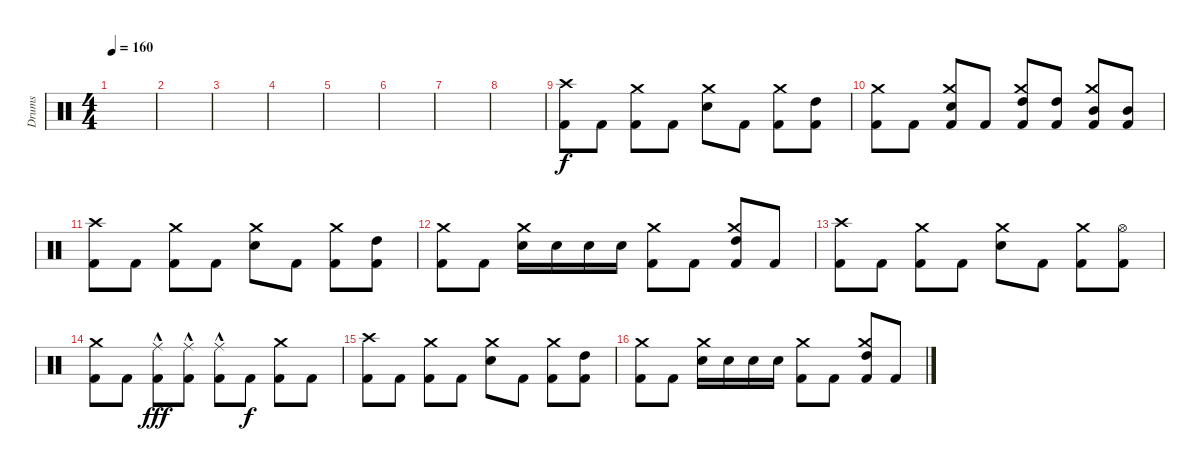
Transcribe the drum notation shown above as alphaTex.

\track ("Drums" "Drums") {instrument percussion}
\staff {score}
\articulation defaults
\ts (4 4)
\tempo 160
\clef neutral
\ks c
|
|
|
|
|
|
|
|
("Crash high (hit)" "Kick (hit) 2").8 "Kick (hit) 2".8 ("Crash medium (hit)" "Kick (hit) 2").8 "Kick (hit) 2".8 ("Crash medium (hit)" "Electric Snare (hit)").8 "Kick (hit) 2".8 ("Crash medium (hit)" "Kick (hit) 2").8 ("High Tom (hit)" "Kick (hit) 2").8 |
("Crash medium (hit)" "Kick (hit) 2").8 "Kick (hit) 2".8 ("Crash medium (hit)" "Electric Snare (hit)" "Kick (hit) 2").8 "Kick (hit) 2".8 ("Crash medium (hit)" "High Tom (hit)" "Kick (hit) 2").8 ("High Tom (hit)" "Kick (hit) 2").8 ("Crash medium (hit)" "Mid Tom (hit)" "Kick (hit) 2").8 ("Mid Tom (hit)" "Kick (hit) 2").8 |
("Crash high (hit)" "Kick (hit) 2").8 "Kick (hit) 2".8 ("Crash medium (hit)" "Kick (hit) 2").8 "Kick (hit) 2".8 ("Crash medium (hit)" "Electric Snare (hit)").8 "Kick (hit) 2".8 ("Crash medium (hit)" "Kick (hit) 2").8 ("High Tom (hit)" "Kick (hit) 2").8 |
("Crash medium (hit)" "Kick (hit) 2").8 "Kick (hit) 2".8 ("Crash medium (hit)" "Electric Snare (hit)").16 "Electric Snare (hit)".16 "Electric Snare (hit)".16 "Electric Snare (hit)".16 ("Crash medium (hit)" "Kick (hit) 2").8 "Kick (hit) 2".8 ("Crash medium (hit)" "High Tom (hit)" "Kick (hit) 2").8 "Kick (hit) 2".8 |
("Crash high (hit)" "Kick (hit) 2").8 "Kick (hit) 2".8 ("Crash medium (hit)" "Kick (hit) 2").8 "Kick (hit) 2".8 ("Crash medium (hit)" "Electric Snare (hit)").8 "Kick (hit) 2".8 ("Crash medium (hit)" "Kick (hit) 2").8 ("Hi-Hat (open)" "Kick (hit) 2").8 |
("Crash medium (hit)" "Kick (hit) 2").8 "Kick (hit) 2".8 ("Ride (middle)"{hac} "Kick (hit) 2").8{dy fff} ("Ride (middle)"{hac} "Kick (hit) 2").8 ("Ride (middle)"{hac} "Kick (hit) 2").8 "Kick (hit) 2".8{dy f} ("Crash medium (hit)" "Kick (hit) 2").8 "Kick (hit) 2".8 |
("Crash high (hit)" "Kick (hit) 2").8 "Kick (hit) 2".8 ("Crash medium (hit)" "Kick (hit) 2").8 "Kick (hit) 2".8 ("Crash medium (hit)" "Electric Snare (hit)").8 "Kick (hit) 2".8 ("Crash medium (hit)" "Kick (hit) 2").8 ("High Tom (hit)" "Kick (hit) 2").8 |
("Crash medium (hit)" "Kick (hit) 2").8 "Kick (hit) 2".8 ("Crash medium (hit)" "Electric Snare (hit)").16 "Electric Snare (hit)".16 "Electric Snare (hit)".16 "Electric Snare (hit)".16 ("Crash medium (hit)" "Kick (hit) 2").8 "Kick (hit) 2".8 ("Crash medium (hit)" "High Tom (hit)" "Kick (hit) 2").8 "Kick (hit) 2".8
